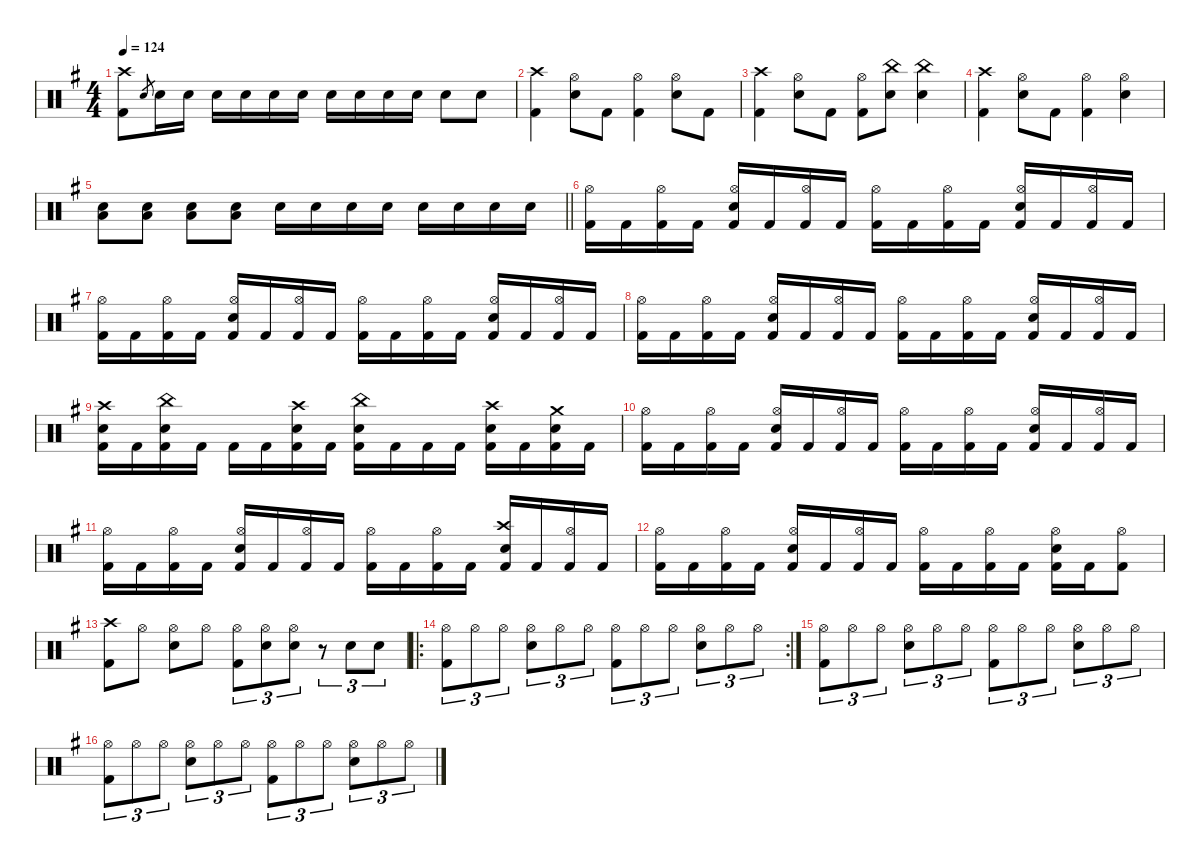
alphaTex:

\defaultSystemsLayout 4
\hideDynamics
\bracketExtendMode nobrackets
\singleTrackTrackNamePolicy hidden
\multiTrackTrackNamePolicy hidden
\otherSystemsTrackNameOrientation horizontal
\track ("Drums" "drm.") {defaultSystemsLayout 4 instrument percussion}
\staff {score}
\articulation defaults
\ts (4 4)
\tempo 124
\clef neutral
\ks eminor
("Crash high (hit)"{acc forcenatural} "Kick (hit) 2"{acc forcenatural}).8{dy mf beam Down} "Electric Snare (hit)"{acc forcenatural}.8{gr dy mp beam Up} "Snare (hit) 2"{acc forcenatural}.16{dy ff beam Down} "Snare (hit) 2"{acc forcenatural}.16{dy p beam Down} "Snare (hit) 2"{acc forcenatural}.16{dy ff beam Down} "Snare (hit) 2"{acc forcenatural}.16{dy f beam Down} "Snare (hit) 2"{acc forcenatural}.16{dy p beam Down} "Snare (hit) 2"{acc forcenatural}.16{dy ff beam Down} "Snare (hit) 2"{acc forcenatural}.16{dy f beam Down} "Snare (hit) 2"{acc forcenatural}.16{dy p beam Down} "Snare (hit) 2"{acc forcenatural}.16{dy ff beam Down} "Snare (hit) 2"{acc forcenatural}.16{dy p beam Down} "Snare (hit) 2"{acc forcenatural}.8{dy ff beam Down} "Snare (hit) 2"{acc forcenatural}.8{beam Down} |
("Crash high (hit)"{acc forcenatural} "Kick (hit) 2"{acc forcenatural}).4{dy mf beam Down} ("Hi-Hat (open)"{acc forcenatural} "Snare (hit) 2"{acc forcenatural}).8{beam Down} "Kick (hit) 2"{acc forcenatural}.8{dy ff beam Down} ("Hi-Hat (open)"{acc forcenatural} "Kick (hit) 2"{acc forcenatural}).4{dy mf beam Down} ("Hi-Hat (open)"{acc forcenatural} "Snare (hit) 2"{acc forcenatural}).8{beam Down} "Kick (hit) 2"{acc forcenatural}.8{dy ff beam Down} |
("Crash high (hit)"{acc forcenatural} "Kick (hit) 2"{acc forcenatural}).4{dy mf beam Down} ("Hi-Hat (open)"{acc forcenatural} "Snare (hit) 2"{acc forcenatural}).8{beam Down} "Kick (hit) 2"{acc forcenatural}.8{dy ff beam Down} ("Hi-Hat (open)"{acc forcenatural} "Kick (hit) 2"{acc forcenatural}).8{dy mf beam Down} ("China (hit)"{acc forcenatural} "Snare (hit) 2"{acc forcenatural}).8{beam Down} ("China (hit)"{acc forcenatural} "Snare (hit) 2"{acc forcenatural}).4{beam Down} |
("Crash high (hit)"{acc forcenatural} "Kick (hit) 2"{acc forcenatural}).4{beam Down} ("Hi-Hat (open)"{acc forcenatural} "Snare (hit) 2"{acc forcenatural}).8{beam Down} "Kick (hit) 2"{acc forcenatural}.8{dy ff beam Down} ("Hi-Hat (open)"{acc forcenatural} "Kick (hit) 2"{acc forcenatural}).4{dy mf beam Down} ("Hi-Hat (open)"{acc forcenatural} "Snare (hit) 2"{acc forcenatural}).4{beam Down} |
\barLineRight lightlight
("Low Tom (hit)"{acc forcenatural} "Snare (hit) 2"{acc forcenatural}).8{dy f beam Down} ("Low Tom (hit)"{acc forcenatural} "Snare (hit) 2"{acc forcenatural}).8{beam Down} ("Low Tom (hit)"{acc forcenatural} "Snare (hit) 2"{acc forcenatural}).8{beam Down} ("Low Tom (hit)"{acc forcenatural} "Snare (hit) 2"{acc forcenatural}).8{beam Down} "Snare (hit) 2"{acc forcenatural}.16{dy ff beam Down} "Snare (hit) 2"{acc forcenatural}.16{dy f beam Down} "Snare (hit) 2"{acc forcenatural}.16{dy ff beam Down} "Snare (hit) 2"{acc forcenatural}.16{dy mf beam Down} "Snare (hit) 2"{acc forcenatural}.16{dy ff beam Down} "Snare (hit) 2"{acc forcenatural}.16{dy f beam Down} "Snare (hit) 2"{acc forcenatural}.16{dy ff beam Down} "Snare (hit) 2"{acc forcenatural}.16{dy f beam Down} |
("Hi-Hat (open)"{acc forcenatural} "Kick (hit) 2"{acc forcenatural}).16{dy mf beam Down} "Kick (hit) 2"{acc forcenatural}.16{dy ff beam Down} ("Hi-Hat (open)"{acc forcenatural} "Kick (hit) 2"{acc forcenatural}).16{dy mf beam Down} "Kick (hit) 2"{acc forcenatural}.16{dy ff beam Down} ("Hi-Hat (open)"{acc forcenatural} "Snare (hit) 2"{acc forcenatural} "Kick (hit) 2"{acc forcenatural}).16{dy mf beam Up} "Kick (hit) 2"{acc forcenatural}.16{dy ff beam Up} ("Hi-Hat (open)"{acc forcenatural} "Kick (hit) 2"{acc forcenatural}).16{dy mf beam Up} "Kick (hit) 2"{acc forcenatural}.16{dy ff beam Up} ("Hi-Hat (open)"{acc forcenatural} "Kick (hit) 2"{acc forcenatural}).16{dy mf beam Down} "Kick (hit) 2"{acc forcenatural}.16{dy ff beam Down} ("Hi-Hat (open)"{acc forcenatural} "Kick (hit) 2"{acc forcenatural}).16{dy mf beam Down} "Kick (hit) 2"{acc forcenatural}.16{dy ff beam Down} ("Hi-Hat (open)"{acc forcenatural} "Snare (hit) 2"{acc forcenatural} "Kick (hit) 2"{acc forcenatural}).16{dy mf beam Up} "Kick (hit) 2"{acc forcenatural}.16{dy ff beam Up} ("Hi-Hat (open)"{acc forcenatural} "Kick (hit) 2"{acc forcenatural}).16{dy mp beam Up} "Kick (hit) 2"{acc forcenatural}.16{dy ff beam Up} |
("Hi-Hat (open)"{acc forcenatural} "Kick (hit) 2"{acc forcenatural}).16{dy mf beam Down} "Kick (hit) 2"{acc forcenatural}.16{dy ff beam Down} ("Hi-Hat (open)"{acc forcenatural} "Kick (hit) 2"{acc forcenatural}).16{dy mf beam Down} "Kick (hit) 2"{acc forcenatural}.16{dy ff beam Down} ("Hi-Hat (open)"{acc forcenatural} "Snare (hit) 2"{acc forcenatural} "Kick (hit) 2"{acc forcenatural}).16{dy mf beam Up} "Kick (hit) 2"{acc forcenatural}.16{dy ff beam Up} ("Hi-Hat (open)"{acc forcenatural} "Kick (hit) 2"{acc forcenatural}).16{dy mf beam Up} "Kick (hit) 2"{acc forcenatural}.16{dy ff beam Up} ("Hi-Hat (open)"{acc forcenatural} "Kick (hit) 2"{acc forcenatural}).16{dy mf beam Down} "Kick (hit) 2"{acc forcenatural}.16{dy ff beam Down} ("Hi-Hat (open)"{acc forcenatural} "Kick (hit) 2"{acc forcenatural}).16{dy mf beam Down} "Kick (hit) 2"{acc forcenatural}.16{dy ff beam Down} ("Hi-Hat (open)"{acc forcenatural} "Snare (hit) 2"{acc forcenatural} "Kick (hit) 2"{acc forcenatural}).16{dy mf beam Up} "Kick (hit) 2"{acc forcenatural}.16{dy ff beam Up} ("Hi-Hat (open)"{acc forcenatural} "Kick (hit) 2"{acc forcenatural}).16{dy mf beam Up} "Kick (hit) 2"{acc forcenatural}.16{dy ff beam Up} |
("Hi-Hat (open)"{acc forcenatural} "Kick (hit) 2"{acc forcenatural}).16{dy mf beam Down} "Kick (hit) 2"{acc forcenatural}.16{dy ff beam Down} ("Hi-Hat (open)"{acc forcenatural} "Kick (hit) 2"{acc forcenatural}).16{dy mf beam Down} "Kick (hit) 2"{acc forcenatural}.16{dy ff beam Down} ("Hi-Hat (open)"{acc forcenatural} "Snare (hit) 2"{acc forcenatural} "Kick (hit) 2"{acc forcenatural}).16{dy mf beam Up} "Kick (hit) 2"{acc forcenatural}.16{dy ff beam Up} ("Hi-Hat (open)"{acc forcenatural} "Kick (hit) 2"{acc forcenatural}).16{dy mf beam Up} "Kick (hit) 2"{acc forcenatural}.16{dy ff beam Up} ("Hi-Hat (open)"{acc forcenatural} "Kick (hit) 2"{acc forcenatural}).16{dy mf beam Down} "Kick (hit) 2"{acc forcenatural}.16{dy ff beam Down} ("Hi-Hat (open)"{acc forcenatural} "Kick (hit) 2"{acc forcenatural}).16{dy mf beam Down} "Kick (hit) 2"{acc forcenatural}.16{dy ff beam Down} ("Hi-Hat (open)"{acc forcenatural} "Snare (hit) 2"{acc forcenatural} "Kick (hit) 2"{acc forcenatural}).16{dy mf beam Up} "Kick (hit) 2"{acc forcenatural}.16{dy ff beam Up} ("Hi-Hat (open)"{acc forcenatural} "Kick (hit) 2"{acc forcenatural}).16{dy mf beam Up} "Kick (hit) 2"{acc forcenatural}.16{dy ff beam Up} |
("Crash high (hit)"{acc forcenatural} "Snare (hit) 2"{acc forcenatural} "Kick (hit) 2"{acc forcenatural}).16{dy mf beam Down} "Kick (hit) 2"{acc forcenatural}.16{dy ff beam Down} ("China (hit)"{acc forcenatural} "Snare (hit) 2"{acc forcenatural} "Kick (hit) 2"{acc forcenatural}).16{dy mf beam Down} "Kick (hit) 2"{acc forcenatural}.16{dy ff beam Down} "Kick (hit) 2"{acc forcenatural}.16{beam Down} "Kick (hit) 2"{acc forcenatural}.16{beam Down} ("Crash high (hit)"{acc forcenatural} "Snare (hit) 2"{acc forcenatural} "Kick (hit) 2"{acc forcenatural}).16{dy mf beam Down} "Kick (hit) 2"{acc forcenatural}.16{dy ff beam Down} ("China (hit)"{acc forcenatural} "Snare (hit) 2"{acc forcenatural} "Kick (hit) 2"{acc forcenatural}).16{dy mf beam Down} "Kick (hit) 2"{acc forcenatural}.16{dy ff beam Down} "Kick (hit) 2"{acc forcenatural}.16{beam Down} "Kick (hit) 2"{acc forcenatural}.16{beam Down} ("Crash high (hit)"{acc forcenatural} "Snare (hit) 2"{acc forcenatural} "Kick (hit) 2"{acc forcenatural}).16{dy mf beam Down} "Kick (hit) 2"{acc forcenatural}.16{dy ff beam Down} ("Crash medium (hit)"{acc forcenatural} "Snare (hit) 2"{acc forcenatural} "Kick (hit) 2"{acc forcenatural}).16{dy mf beam Down} "Kick (hit) 2"{acc forcenatural}.16{dy ff beam Down} |
("Hi-Hat (open)"{acc forcenatural} "Kick (hit) 2"{acc forcenatural}).16{dy mf beam Down} "Kick (hit) 2"{acc forcenatural}.16{dy ff beam Down} ("Hi-Hat (open)"{acc forcenatural} "Kick (hit) 2"{acc forcenatural}).16{dy mf beam Down} "Kick (hit) 2"{acc forcenatural}.16{dy ff beam Down} ("Hi-Hat (open)"{acc forcenatural} "Snare (hit) 2"{acc forcenatural} "Kick (hit) 2"{acc forcenatural}).16{dy mf beam Up} "Kick (hit) 2"{acc forcenatural}.16{dy ff beam Up} ("Hi-Hat (open)"{acc forcenatural} "Kick (hit) 2"{acc forcenatural}).16{dy mf beam Up} "Kick (hit) 2"{acc forcenatural}.16{dy ff beam Up} ("Hi-Hat (open)"{acc forcenatural} "Kick (hit) 2"{acc forcenatural}).16{dy mf beam Down} "Kick (hit) 2"{acc forcenatural}.16{dy ff beam Down} ("Hi-Hat (open)"{acc forcenatural} "Kick (hit) 2"{acc forcenatural}).16{dy mf beam Down} "Kick (hit) 2"{acc forcenatural}.16{dy ff beam Down} ("Hi-Hat (open)"{acc forcenatural} "Snare (hit) 2"{acc forcenatural} "Kick (hit) 2"{acc forcenatural}).16{dy mf beam Up} "Kick (hit) 2"{acc forcenatural}.16{dy ff beam Up} ("Hi-Hat (open)"{acc forcenatural} "Kick (hit) 2"{acc forcenatural}).16{dy mf beam Up} "Kick (hit) 2"{acc forcenatural}.16{dy ff beam Up} |
("Hi-Hat (open)"{acc forcenatural} "Kick (hit) 2"{acc forcenatural}).16{dy mf beam Down} "Kick (hit) 2"{acc forcenatural}.16{dy ff beam Down} ("Hi-Hat (open)"{acc forcenatural} "Kick (hit) 2"{acc forcenatural}).16{dy mf beam Down} "Kick (hit) 2"{acc forcenatural}.16{dy ff beam Down} ("Hi-Hat (open)"{acc forcenatural} "Snare (hit) 2"{acc forcenatural} "Kick (hit) 2"{acc forcenatural}).16{dy mf beam Up} "Kick (hit) 2"{acc forcenatural}.16{dy ff beam Up} ("Hi-Hat (open)"{acc forcenatural} "Kick (hit) 2"{acc forcenatural}).16{dy mf beam Up} "Kick (hit) 2"{acc forcenatural}.16{dy ff beam Up} ("Hi-Hat (open)"{acc forcenatural} "Kick (hit) 2"{acc forcenatural}).16{dy mp beam Down} "Kick (hit) 2"{acc forcenatural}.16{dy ff beam Down} ("Hi-Hat (open)"{acc forcenatural} "Kick (hit) 2"{acc forcenatural}).16{dy mf beam Down} "Kick (hit) 2"{acc forcenatural}.16{dy ff beam Down} ("Crash high (hit)"{acc forcenatural} "Snare (hit) 2"{acc forcenatural} "Kick (hit) 2"{acc forcenatural}).16{dy mf beam Up} "Kick (hit) 2"{acc forcenatural}.16{dy ff beam Up} ("Hi-Hat (open)"{acc forcenatural} "Kick (hit) 2"{acc forcenatural}).16{dy mf beam Up} "Kick (hit) 2"{acc forcenatural}.16{dy ff beam Up} |
("Hi-Hat (open)"{acc forcenatural} "Kick (hit) 2"{acc forcenatural}).16{dy mf beam Down} "Kick (hit) 2"{acc forcenatural}.16{dy ff beam Down} ("Hi-Hat (open)"{acc forcenatural} "Kick (hit) 2"{acc forcenatural}).16{dy mf beam Down} "Kick (hit) 2"{acc forcenatural}.16{dy ff beam Down} ("Hi-Hat (open)"{acc forcenatural} "Snare (hit) 2"{acc forcenatural} "Kick (hit) 2"{acc forcenatural}).16{dy mf beam Up} "Kick (hit) 2"{acc forcenatural}.16{dy ff beam Up} ("Hi-Hat (open)"{acc forcenatural} "Kick (hit) 2"{acc forcenatural}).16{dy mf beam Up} "Kick (hit) 2"{acc forcenatural}.16{dy ff beam Up} ("Hi-Hat (open)"{acc forcenatural} "Kick (hit) 2"{acc forcenatural}).16{dy mf beam Down} "Kick (hit) 2"{acc forcenatural}.16{dy ff beam Down} ("Hi-Hat (open)"{acc forcenatural} "Kick (hit) 2"{acc forcenatural}).16{dy mf beam Down} "Kick (hit) 2"{acc forcenatural}.16{dy ff beam Down} ("Hi-Hat (open)"{acc forcenatural} "Snare (hit) 2"{acc forcenatural} "Kick (hit) 2"{acc forcenatural}).16{dy mf beam Down} "Kick (hit) 2"{acc forcenatural}.16{dy ff beam Down} ("Hi-Hat (open)"{acc forcenatural} "Kick (hit) 2"{acc forcenatural}).8{dy f beam Down} |
("Crash high (hit)"{acc forcenatural} "Kick (hit) 2"{acc forcenatural}).8{beam Down} "Hi-Hat (open)"{acc forcenatural}.8{dy mf beam Down} ("Hi-Hat (open)"{acc forcenatural} "Snare (hit) 2"{acc forcenatural}).8{beam Down} "Hi-Hat (open)"{acc forcenatural}.8{beam Down} ("Hi-Hat (open)"{acc forcenatural} "Kick (hit) 2"{acc forcenatural}).8{tu (3 2) beam Down} ("Hi-Hat (open)"{acc forcenatural} "Snare (hit) 2"{acc forcenatural}).8{tu (3 2) dy f beam Down} ("Hi-Hat (open)"{acc forcenatural} "Snare (hit) 2"{acc forcenatural}).8{tu (3 2) beam Down} r.8{tu (3 2) beam Down} "Snare (hit) 2"{acc forcenatural}.8{tu (3 2) dy ff beam Down} "Snare (hit) 2"{acc forcenatural}.8{tu (3 2) beam Down} |
\ro
\rc 2
("Hi-Hat (open)"{acc forcenatural} "Kick (hit) 2"{acc forcenatural}).8{tu (3 2) dy mf beam Down} "Hi-Hat (open)"{acc forcenatural}.8{tu (3 2) beam Down} "Hi-Hat (open)"{acc forcenatural}.8{tu (3 2) beam Down} ("Hi-Hat (open)"{acc forcenatural} "Snare (hit) 2"{acc forcenatural}).8{tu (3 2) beam Down} "Hi-Hat (open)"{acc forcenatural}.8{tu (3 2) beam Down} "Hi-Hat (open)"{acc forcenatural}.8{tu (3 2) beam Down} ("Hi-Hat (open)"{acc forcenatural} "Kick (hit) 2"{acc forcenatural}).8{tu (3 2) beam Down} "Hi-Hat (open)"{acc forcenatural}.8{tu (3 2) beam Down} "Hi-Hat (open)"{acc forcenatural}.8{tu (3 2) beam Down} ("Hi-Hat (open)"{acc forcenatural} "Snare (hit) 2"{acc forcenatural}).8{tu (3 2) beam Down} "Hi-Hat (open)"{acc forcenatural}.8{tu (3 2) beam Down} "Hi-Hat (open)"{acc forcenatural}.8{tu (3 2) beam Down} |
("Hi-Hat (open)"{acc forcenatural} "Kick (hit) 2"{acc forcenatural}).8{tu (3 2) beam Down} "Hi-Hat (open)"{acc forcenatural}.8{tu (3 2) beam Down} "Hi-Hat (open)"{acc forcenatural}.8{tu (3 2) beam Down} ("Hi-Hat (open)"{acc forcenatural} "Snare (hit) 2"{acc forcenatural}).8{tu (3 2) beam Down} "Hi-Hat (open)"{acc forcenatural}.8{tu (3 2) beam Down} "Hi-Hat (open)"{acc forcenatural}.8{tu (3 2) beam Down} ("Hi-Hat (open)"{acc forcenatural} "Kick (hit) 2"{acc forcenatural}).8{tu (3 2) beam Down} "Hi-Hat (open)"{acc forcenatural}.8{tu (3 2) beam Down} "Hi-Hat (open)"{acc forcenatural}.8{tu (3 2) beam Down} ("Hi-Hat (open)"{acc forcenatural} "Snare (hit) 2"{acc forcenatural}).8{tu (3 2) beam Down} "Hi-Hat (open)"{acc forcenatural}.8{tu (3 2) beam Down} "Hi-Hat (open)"{acc forcenatural}.8{tu (3 2) beam Down} |
("Hi-Hat (open)"{acc forcenatural} "Kick (hit) 2"{acc forcenatural}).8{tu (3 2) beam Down} "Hi-Hat (open)"{acc forcenatural}.8{tu (3 2) beam Down} "Hi-Hat (open)"{acc forcenatural}.8{tu (3 2) beam Down} ("Hi-Hat (open)"{acc forcenatural} "Snare (hit) 2"{acc forcenatural}).8{tu (3 2) beam Down} "Hi-Hat (open)"{acc forcenatural}.8{tu (3 2) beam Down} "Hi-Hat (open)"{acc forcenatural}.8{tu (3 2) beam Down} ("Hi-Hat (open)"{acc forcenatural} "Kick (hit) 2"{acc forcenatural}).8{tu (3 2) beam Down} "Hi-Hat (open)"{acc forcenatural}.8{tu (3 2) beam Down} "Hi-Hat (open)"{acc forcenatural}.8{tu (3 2) beam Down} ("Hi-Hat (open)"{acc forcenatural} "Snare (hit) 2"{acc forcenatural}).8{tu (3 2) beam Down} "Hi-Hat (open)"{acc forcenatural}.8{tu (3 2) beam Down} "Hi-Hat (open)"{acc forcenatural}.8{tu (3 2) beam Down}
